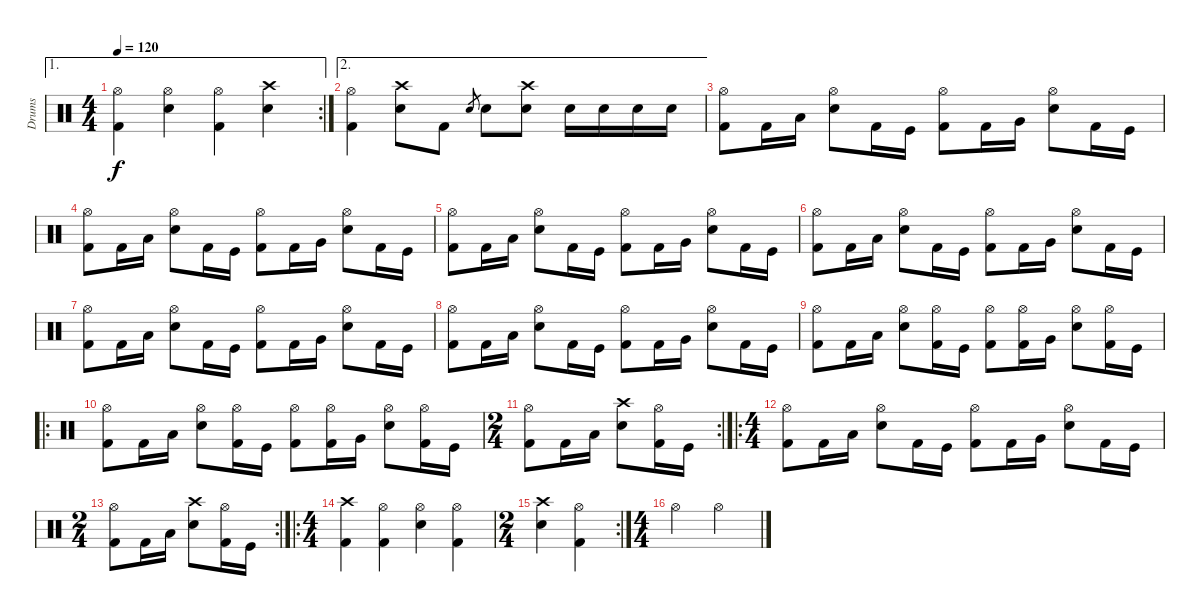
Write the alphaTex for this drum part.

\track ("Drums" "Drums") {instrument percussion}
\staff {score}
\articulation defaults
\ae 1
\rc 2
\ts (4 4)
\tempo 120
\clef neutral
\ks c
("Hi-Hat (open)" "Kick (hit) 2").4{dy f} ("Hi-Hat (open)" "Electric Snare (hit)").4 ("Hi-Hat (open)" "Kick (hit) 2").4 ("Crash high (hit)" "Electric Snare (hit)").4 |
\ae 2
("Hi-Hat (open)" "Kick (hit) 2").4 ("Crash high (hit)" "Electric Snare (hit)").8 "Kick (hit) 2".8 "Snare (hit) 2".8{gr} "Electric Snare (hit)".8 ("Crash high (hit)" "Electric Snare (hit)").8 "Electric Snare (hit)".16 "Electric Snare (hit)".16 "Electric Snare (hit)".16 "Electric Snare (hit)".16 |
("Hi-Hat (open)" "Kick (hit) 2").8 "Kick (hit) 2".16 "Low Tom (hit)".16 ("Hi-Hat (open)" "Snare (hit) 2").8 "Kick (hit) 2".16 "Kick (hit)".16 ("Hi-Hat (open)" "Kick (hit) 2").8 "Kick (hit) 2".16 "Very Low Tom (hit)".16 ("Hi-Hat (open)" "Snare (hit) 2").8 "Kick (hit) 2".16 "Kick (hit)".16 |
("Hi-Hat (open)" "Kick (hit) 2").8 "Kick (hit) 2".16 "Low Tom (hit)".16 ("Hi-Hat (open)" "Snare (hit) 2").8 "Kick (hit) 2".16 "Kick (hit)".16 ("Hi-Hat (open)" "Kick (hit) 2").8 "Kick (hit) 2".16 "Very Low Tom (hit)".16 ("Hi-Hat (open)" "Snare (hit) 2").8 "Kick (hit) 2".16 "Kick (hit)".16 |
("Hi-Hat (open)" "Kick (hit) 2").8 "Kick (hit) 2".16 "Low Tom (hit)".16 ("Hi-Hat (open)" "Snare (hit) 2").8 "Kick (hit) 2".16 "Kick (hit)".16 ("Hi-Hat (open)" "Kick (hit) 2").8 "Kick (hit) 2".16 "Very Low Tom (hit)".16 ("Hi-Hat (open)" "Snare (hit) 2").8 "Kick (hit) 2".16 "Kick (hit)".16 |
("Hi-Hat (open)" "Kick (hit) 2").8 "Kick (hit) 2".16 "Low Tom (hit)".16 ("Hi-Hat (open)" "Snare (hit) 2").8 "Kick (hit) 2".16 "Kick (hit)".16 ("Hi-Hat (open)" "Kick (hit) 2").8 "Kick (hit) 2".16 "Very Low Tom (hit)".16 ("Hi-Hat (open)" "Snare (hit) 2").8 "Kick (hit) 2".16 "Kick (hit)".16 |
("Hi-Hat (open)" "Kick (hit) 2").8 "Kick (hit) 2".16 "Low Tom (hit)".16 ("Hi-Hat (open)" "Snare (hit) 2").8 "Kick (hit) 2".16 "Kick (hit)".16 ("Hi-Hat (open)" "Kick (hit) 2").8 "Kick (hit) 2".16 "Very Low Tom (hit)".16 ("Hi-Hat (open)" "Snare (hit) 2").8 "Kick (hit) 2".16 "Kick (hit)".16 |
("Hi-Hat (open)" "Kick (hit) 2").8 "Kick (hit) 2".16 "Low Tom (hit)".16 ("Hi-Hat (open)" "Snare (hit) 2").8 "Kick (hit) 2".16 "Kick (hit)".16 ("Hi-Hat (open)" "Kick (hit) 2").8 "Kick (hit) 2".16 "Very Low Tom (hit)".16 ("Hi-Hat (open)" "Snare (hit) 2").8 "Kick (hit) 2".16 "Kick (hit)".16 |
("Hi-Hat (open)" "Kick (hit) 2").8 "Kick (hit) 2".16 "Low Tom (hit)".16 ("Hi-Hat (open)" "Snare (hit) 2").8 ("Hi-Hat (open)" "Kick (hit) 2").16 "Kick (hit)".16 ("Hi-Hat (open)" "Kick (hit) 2").8 ("Hi-Hat (open)" "Kick (hit) 2").16 "Very Low Tom (hit)".16 ("Hi-Hat (open)" "Snare (hit) 2").8 ("Hi-Hat (open)" "Kick (hit) 2").16 "Kick (hit)".16 |
\ro
("Hi-Hat (open)" "Kick (hit) 2").8 "Kick (hit) 2".16 "Low Tom (hit)".16 ("Hi-Hat (open)" "Snare (hit) 2").8 ("Hi-Hat (open)" "Kick (hit) 2").16 "Kick (hit)".16 ("Hi-Hat (open)" "Kick (hit) 2").8 ("Hi-Hat (open)" "Kick (hit) 2").16 "Very Low Tom (hit)".16 ("Hi-Hat (open)" "Snare (hit) 2").8 ("Hi-Hat (open)" "Kick (hit) 2").16 "Kick (hit)".16 |
\rc 2
\ts (2 4)
("Hi-Hat (open)" "Kick (hit) 2").8 "Kick (hit) 2".16 "Low Tom (hit)".16 ("Crash high (hit)" "Snare (hit) 2").8 ("Hi-Hat (open)" "Kick (hit) 2").16 "Kick (hit)".16 |
\ro
\ts (4 4)
("Hi-Hat (open)" "Kick (hit) 2").8 "Kick (hit) 2".16 "Low Tom (hit)".16 ("Hi-Hat (open)" "Snare (hit) 2").8 "Kick (hit) 2".16 "Kick (hit)".16 ("Hi-Hat (open)" "Kick (hit) 2").8 "Kick (hit) 2".16 "Very Low Tom (hit)".16 ("Hi-Hat (open)" "Snare (hit) 2").8 "Kick (hit) 2".16 "Kick (hit)".16 |
\rc 2
\ts (2 4)
("Hi-Hat (open)" "Kick (hit) 2").8 "Kick (hit) 2".16 "Low Tom (hit)".16 ("Crash high (hit)" "Snare (hit) 2").8 ("Hi-Hat (open)" "Kick (hit) 2").16 "Kick (hit)".16 |
\ro
\ts (4 4)
("Crash high (hit)" "Kick (hit) 2").4 ("Hi-Hat (open)" "Kick (hit) 2").4 ("Hi-Hat (open)" "Snare (hit) 2").4 ("Hi-Hat (open)" "Kick (hit) 2").4 |
\rc 2
\ts (2 4)
("Crash high (hit)" "Snare (hit) 2").4 ("Hi-Hat (open)" "Kick (hit) 2").4 |
\ts (4 4)
"Hi-Hat (open)".2 "Hi-Hat (open)".2
